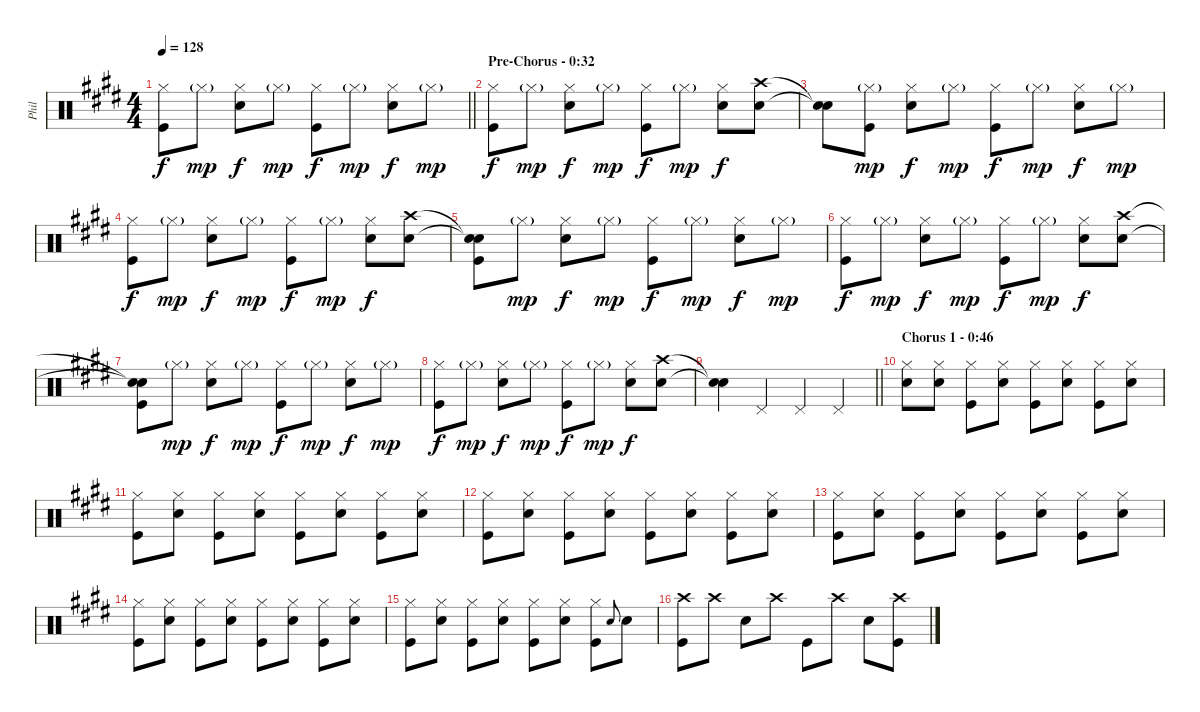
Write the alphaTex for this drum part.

\track ("Phil" "Phil") {instrument percussion}
\staff {score}
\articulation defaults
\ts (4 4)
\tempo 128
\clef neutral
\barLineRight lightlight
\ks e
("Hi-Hat (closed)" "Kick (hit)").8{dy f} "Hi-Hat (closed)"{g}.8{dy mp} ("Hi-Hat (closed)" "Electric Snare (hit)").8{dy f} "Hi-Hat (closed)"{g}.8{dy mp} ("Hi-Hat (closed)" "Kick (hit)").8{dy f} "Hi-Hat (closed)"{g}.8{dy mp} ("Hi-Hat (closed)" "Electric Snare (hit)").8{dy f} "Hi-Hat (closed)"{g}.8{dy mp} |
\section ("" "Pre-Chorus - 0:32")
("Hi-Hat (closed)" "Kick (hit)").8{dy f} "Hi-Hat (closed)"{g}.8{dy mp} ("Hi-Hat (closed)" "Electric Snare (hit)").8{dy f} "Hi-Hat (closed)"{g}.8{dy mp} ("Hi-Hat (closed)" "Kick (hit)").8{dy f} "Hi-Hat (closed)"{g}.8{dy mp} ("Hi-Hat (closed)" "Electric Snare (hit)").8{dy f} ("Crash high (hit)" "Electric Snare (hit)").8 |
("Snare (hit)"{t} "Snare (hit)"{t}).8 ("Hi-Hat (closed)"{g} "Kick (hit)").8{dy mp} ("Hi-Hat (closed)" "Electric Snare (hit)").8{dy f} "Hi-Hat (closed)"{g}.8{dy mp} ("Hi-Hat (closed)" "Kick (hit)").8{dy f} "Hi-Hat (closed)"{g}.8{dy mp} ("Hi-Hat (closed)" "Electric Snare (hit)").8{dy f} "Hi-Hat (closed)"{g}.8{dy mp} |
("Hi-Hat (closed)" "Kick (hit)").8{dy f} "Hi-Hat (closed)"{g}.8{dy mp} ("Hi-Hat (closed)" "Electric Snare (hit)").8{dy f} "Hi-Hat (closed)"{g}.8{dy mp} ("Hi-Hat (closed)" "Kick (hit)").8{dy f} "Hi-Hat (closed)"{g}.8{dy mp} ("Hi-Hat (closed)" "Electric Snare (hit)").8{dy f} ("Crash high (hit)" "Electric Snare (hit)").8 |
("Snare (hit)"{t} "Snare (hit)"{t} "Kick (hit)").8 "Hi-Hat (closed)"{g}.8{dy mp} ("Hi-Hat (closed)" "Electric Snare (hit)").8{dy f} "Hi-Hat (closed)"{g}.8{dy mp} ("Hi-Hat (closed)" "Kick (hit)").8{dy f} "Hi-Hat (closed)"{g}.8{dy mp} ("Hi-Hat (closed)" "Electric Snare (hit)").8{dy f} "Hi-Hat (closed)"{g}.8{dy mp} |
("Hi-Hat (closed)" "Kick (hit)").8{dy f} "Hi-Hat (closed)"{g}.8{dy mp} ("Hi-Hat (closed)" "Electric Snare (hit)").8{dy f} "Hi-Hat (closed)"{g}.8{dy mp} ("Hi-Hat (closed)" "Kick (hit)").8{dy f} "Hi-Hat (closed)"{g}.8{dy mp} ("Hi-Hat (closed)" "Electric Snare (hit)").8{dy f} ("Crash high (hit)" "Electric Snare (hit)").8 |
("Snare (hit)"{t} "Snare (hit)"{t} "Kick (hit)").8 "Hi-Hat (closed)"{g}.8{dy mp} ("Hi-Hat (closed)" "Electric Snare (hit)").8{dy f} "Hi-Hat (closed)"{g}.8{dy mp} ("Hi-Hat (closed)" "Kick (hit)").8{dy f} "Hi-Hat (closed)"{g}.8{dy mp} ("Hi-Hat (closed)" "Electric Snare (hit)").8{dy f} "Hi-Hat (closed)"{g}.8{dy mp} |
("Hi-Hat (closed)" "Kick (hit)").8{dy f} "Hi-Hat (closed)"{g}.8{dy mp} ("Hi-Hat (closed)" "Electric Snare (hit)").8{dy f} "Hi-Hat (closed)"{g}.8{dy mp} ("Hi-Hat (closed)" "Kick (hit)").8{dy f} "Hi-Hat (closed)"{g}.8{dy mp} ("Hi-Hat (closed)" "Electric Snare (hit)").8{dy f} ("Crash high (hit)" "Electric Snare (hit)").8 |
\barLineRight lightlight
("Snare (hit)"{t} "Snare (hit)"{t}).4 "Pedal Hi-Hat (hit)".4 "Pedal Hi-Hat (hit)".4 "Pedal Hi-Hat (hit)".4 |
\section ("" "Chorus 1 - 0:46")
("Hi-Hat (closed)" "Electric Snare (hit)").8 ("Hi-Hat (closed)" "Electric Snare (hit)").8 ("Hi-Hat (closed)" "Kick (hit)").8 ("Hi-Hat (closed)" "Electric Snare (hit)").8 ("Hi-Hat (closed)" "Kick (hit)").8 ("Hi-Hat (closed)" "Electric Snare (hit)").8 ("Hi-Hat (closed)" "Kick (hit)").8 ("Hi-Hat (closed)" "Electric Snare (hit)").8 |
("Hi-Hat (closed)" "Kick (hit)").8 ("Hi-Hat (closed)" "Electric Snare (hit)").8 ("Hi-Hat (closed)" "Kick (hit)").8 ("Hi-Hat (closed)" "Electric Snare (hit)").8 ("Hi-Hat (closed)" "Kick (hit)").8 ("Hi-Hat (closed)" "Electric Snare (hit)").8 ("Hi-Hat (closed)" "Kick (hit)").8 ("Hi-Hat (closed)" "Electric Snare (hit)").8 |
("Hi-Hat (closed)" "Kick (hit)").8 ("Hi-Hat (closed)" "Electric Snare (hit)").8 ("Hi-Hat (closed)" "Kick (hit)").8 ("Hi-Hat (closed)" "Electric Snare (hit)").8 ("Hi-Hat (closed)" "Kick (hit)").8 ("Hi-Hat (closed)" "Electric Snare (hit)").8 ("Hi-Hat (closed)" "Kick (hit)").8 ("Hi-Hat (closed)" "Electric Snare (hit)").8 |
("Hi-Hat (closed)" "Kick (hit)").8 ("Hi-Hat (closed)" "Electric Snare (hit)").8 ("Hi-Hat (closed)" "Kick (hit)").8 ("Hi-Hat (closed)" "Electric Snare (hit)").8 ("Hi-Hat (closed)" "Kick (hit)").8 ("Hi-Hat (closed)" "Electric Snare (hit)").8 ("Hi-Hat (closed)" "Kick (hit)").8 ("Hi-Hat (closed)" "Electric Snare (hit)").8 |
("Hi-Hat (closed)" "Kick (hit)").8 ("Hi-Hat (closed)" "Electric Snare (hit)").8 ("Hi-Hat (closed)" "Kick (hit)").8 ("Hi-Hat (closed)" "Electric Snare (hit)").8 ("Hi-Hat (closed)" "Kick (hit)").8 ("Hi-Hat (closed)" "Electric Snare (hit)").8 ("Hi-Hat (closed)" "Kick (hit)").8 ("Hi-Hat (closed)" "Electric Snare (hit)").8 |
("Hi-Hat (closed)" "Kick (hit)").8 ("Hi-Hat (closed)" "Electric Snare (hit)").8 ("Hi-Hat (closed)" "Kick (hit)").8 ("Hi-Hat (closed)" "Electric Snare (hit)").8 ("Hi-Hat (closed)" "Kick (hit)").8 ("Hi-Hat (closed)" "Electric Snare (hit)").8 ("Hi-Hat (closed)" "Kick (hit)").8 "Electric Snare (hit)".8{gr onbeat} "Electric Snare (hit)".8 |
("Crash high (hit)" "Kick (hit)").8 "Crash high (hit)".8 "Electric Snare (hit)".8 "Crash high (hit)".8 "Kick (hit)".8 "Crash high (hit)".8 "Electric Snare (hit)".8 ("Crash high (hit)" "Kick (hit)").8
